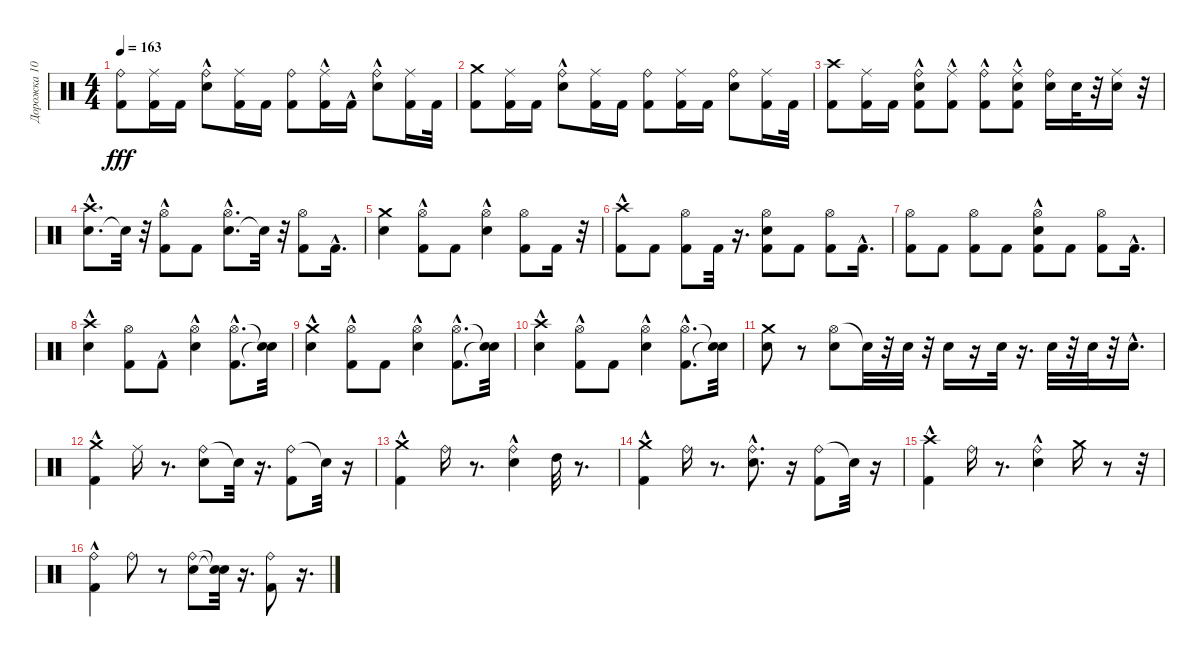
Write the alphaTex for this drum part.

\track ("Дорожка 10" "Дорожка 10") {instrument percussion}
\staff {score}
\articulation defaults
\ts (4 4)
\tempo 163
\clef neutral
\ks c
("Ride (bell)" "Kick (hit) 2").8{dy fff} ("Ride (middle)" "Kick (hit) 2").16 "Kick (hit) 2".16 ("Ride (bell)" "Electric Snare (hit)"{hac}).8 ("Ride (middle)" "Kick (hit) 2").16 "Kick (hit) 2".16 ("Kick (hit) 2" "Ride (bell)").8 ("Ride (middle)"{hac} "Kick (hit) 2").16 "Kick (hit) 2"{hac}.16 ("Ride (bell)" "Electric Snare (hit)"{hac}).8 ("Ride (middle)" "Kick (hit) 2").16 "Kick (hit) 2".32 |
("Kick (hit) 2" "Crash medium (hit)").8 ("Kick (hit) 2" "Ride (middle)").16 "Kick (hit) 2".16 ("Electric Snare (hit)"{hac} "Ride (bell)").8 ("Kick (hit) 2" "Ride (middle)").16 "Kick (hit) 2".16 ("Kick (hit) 2" "Ride (bell)").8 ("Ride (middle)" "Kick (hit) 2").16 "Kick (hit) 2".16 ("Ride (bell)" "Electric Snare (hit)").8 ("Ride (middle)" "Kick (hit) 2").16 "Kick (hit) 2".32 |
("Crash high (hit)" "Kick (hit) 2").8 ("Ride (middle)" "Kick (hit) 2").16 "Kick (hit) 2".16 ("Kick (hit) 2" "Electric Snare (hit)"{hac} "Ride (bell)").8 ("Ride (middle)"{hac} "Kick (hit) 2").8 ("Ride (bell)" "Kick (hit) 2"{hac}).8 ("Ride (middle)" "Electric Snare (hit)"{hac} "Kick (hit) 2").8 ("Ride (bell)" "Electric Snare (hit)").16 "Electric Snare (hit)".32 r.32 ("Ride (middle)" "Electric Snare (hit)").16 r.32 |
("Electric Snare (hit)"{hac} "Crash high (hit)").8{d} "Snare (hit)"{t}.32 r.32 ("Kick (hit) 2"{hac} "Hi-Hat (open)").8 "Kick (hit) 2".8 ("Electric Snare (hit)"{hac} "Hi-Hat (open)"{hac}).8{d} "Snare (hit)"{t}.32 r.32 ("Hi-Hat (open)" "Kick (hit) 2").8 "Kick (hit) 2"{hac}.16{d} |
("Electric Snare (hit)" "Crash medium (hit)").4 ("Hi-Hat (open)"{hac} "Kick (hit) 2").8 "Kick (hit) 2".8 ("Hi-Hat (open)"{hac} "Electric Snare (hit)").4 ("Hi-Hat (open)" "Kick (hit) 2").8 "Kick (hit) 2".16 r.32 |
("Kick (hit) 2"{hac} "Crash high (hit)").8 "Kick (hit) 2".8 ("Kick (hit) 2" "Hi-Hat (open)").8 "Kick (hit) 2".32 r.16{d} ("Kick (hit) 2" "Electric Snare (hit)" "Hi-Hat (open)").8 "Kick (hit) 2".8 ("Kick (hit) 2" "Hi-Hat (open)").8 "Kick (hit) 2"{hac}.16{d} |
("Hi-Hat (open)" "Kick (hit) 2").8 "Kick (hit) 2".8 ("Hi-Hat (open)" "Kick (hit) 2").8 "Kick (hit) 2".8 ("Hi-Hat (open)" "Kick (hit) 2" "Electric Snare (hit)"{hac}).8 "Kick (hit) 2".8 ("Hi-Hat (open)" "Kick (hit) 2").8 "Kick (hit) 2"{hac}.16{d} |
("Electric Snare (hit)"{hac} "Crash high (hit)").4 ("Kick (hit) 2" "Hi-Hat (open)").8 "Kick (hit) 2"{hac}.8 ("Electric Snare (hit)"{hac} "Hi-Hat (open)").4 ("Hi-Hat (open)"{hac} "Kick (hit) 2"{hac}).8{d} ("Snare (hit)"{t} "Snare (hit)"{t}).32 |
("Electric Snare (hit)"{hac} "Crash medium (hit)"{hac}).4 ("Kick (hit) 2" "Hi-Hat (open)"{hac}).8 "Kick (hit) 2".8 ("Hi-Hat (open)"{hac} "Electric Snare (hit)"{hac}).4 ("Kick (hit) 2"{hac} "Hi-Hat (open)"{hac}).8{d} ("Snare (hit)"{t} "Snare (hit)"{t}).32 |
("Electric Snare (hit)"{hac} "Crash high (hit)").4 ("Hi-Hat (open)" "Kick (hit) 2"{hac}).8 "Kick (hit) 2".8 ("Hi-Hat (open)" "Electric Snare (hit)"{hac}).4 ("Hi-Hat (open)"{hac} "Kick (hit) 2"{hac}).8{d} ("Snare (hit)"{t} "Snare (hit)"{t}).32 |
("Electric Snare (hit)" "Crash medium (hit)").8 r.8 ("Hi-Hat (open)" "Electric Snare (hit)").8 "Snare (hit)"{t}.32 r.32 "Electric Snare (hit)".32 r.32 "Electric Snare (hit)".16 r.16 "Electric Snare (hit)".32 r.16{d} "Electric Snare (hit)".32 r.32 "Electric Snare (hit)".32 r.32 "Electric Snare (hit)"{hac}.16{d} |
("Kick (hit) 2"{hac} "Crash medium (hit)").4 "Ride (middle)".16 r.8{d} ("Ride (bell)" "Electric Snare (hit)").8 "Snare (hit)"{t}.32 r.16{d} ("Ride (bell)" "Kick (hit) 2").8 "Snare (hit)"{t}.32 r.16 |
("Crash medium (hit)" "Kick (hit) 2"{hac}).4 "Ride (bell)".16 r.8{d} ("Electric Snare (hit)"{hac} "Ride (bell)").4 "High Tom (hit)".32 r.8{d} |
("Crash medium (hit)" "Kick (hit) 2"{hac}).4 "Ride (bell)".16 r.8{d} ("Electric Snare (hit)"{hac} "Ride (bell)"{hac}).8{d} r.16 ("Ride (bell)" "Kick (hit) 2").8 "Snare (hit)"{t}.32 r.16 |
("Crash high (hit)" "Kick (hit) 2"{hac}).4 "Ride (bell)".16 r.8{d} ("Ride (bell)" "Electric Snare (hit)"{hac}).4 "Crash medium (hit)".16 r.8 r.32 |
("Kick (hit) 2"{hac} "Ride (bell)").4 "Ride (bell)".8 r.8 ("Ride (bell)" "Electric Snare (hit)").8 ("Snare (hit)"{t} "Snare (hit)"{t}).32 r.16{d} ("Ride (bell)" "Kick (hit) 2").8 r.16{d}
